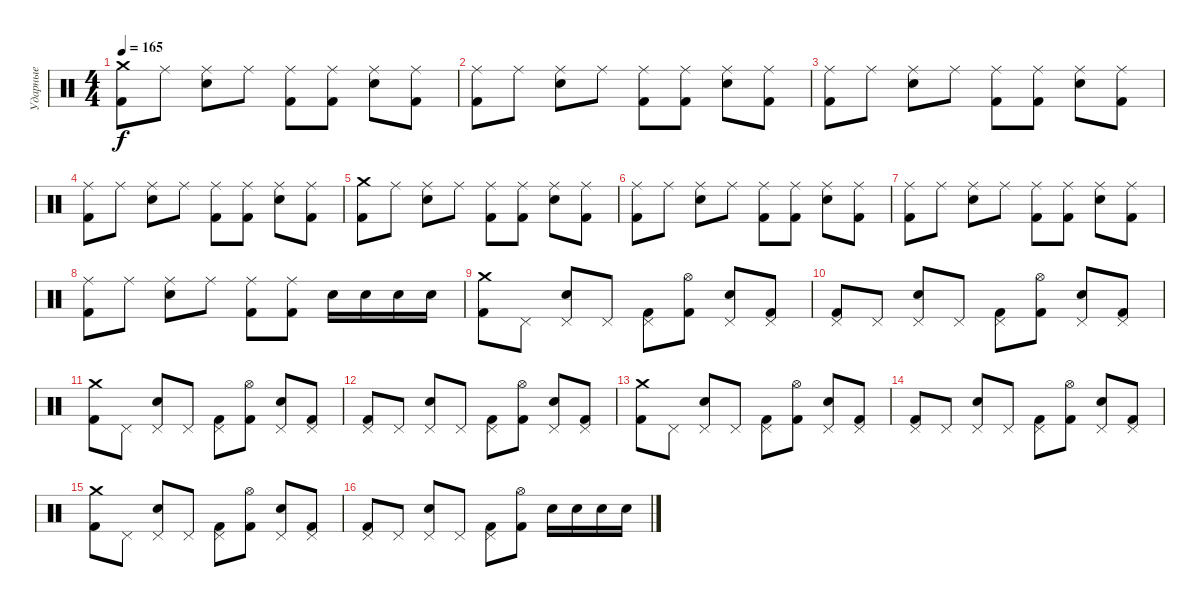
\track ("Ударные" "Ударные") {instrument percussion}
\staff {score}
\articulation defaults
\ts (4 4)
\tempo 165
\clef neutral
\ks c
("Crash medium (hit)" "Kick (hit) 2").8{dy f} "Ride (middle)".8 ("Ride (middle)" "Electric Snare (hit)").8 "Ride (middle)".8 ("Ride (middle)" "Kick (hit) 2").8 ("Ride (middle)" "Kick (hit) 2").8 ("Ride (middle)" "Electric Snare (hit)").8 ("Ride (middle)" "Kick (hit) 2").8 |
("Ride (middle)" "Kick (hit) 2").8 "Ride (middle)".8 ("Ride (middle)" "Electric Snare (hit)").8 "Ride (middle)".8 ("Ride (middle)" "Kick (hit) 2").8 ("Ride (middle)" "Kick (hit) 2").8 ("Ride (middle)" "Electric Snare (hit)").8 ("Ride (middle)" "Kick (hit) 2").8 |
("Ride (middle)" "Kick (hit) 2").8 "Ride (middle)".8 ("Ride (middle)" "Electric Snare (hit)").8 "Ride (middle)".8 ("Ride (middle)" "Kick (hit) 2").8 ("Ride (middle)" "Kick (hit) 2").8 ("Ride (middle)" "Electric Snare (hit)").8 ("Ride (middle)" "Kick (hit) 2").8 |
("Ride (middle)" "Kick (hit) 2").8 "Ride (middle)".8 ("Ride (middle)" "Electric Snare (hit)").8 "Ride (middle)".8 ("Ride (middle)" "Kick (hit) 2").8 ("Ride (middle)" "Kick (hit) 2").8 ("Ride (middle)" "Electric Snare (hit)").8 ("Ride (middle)" "Kick (hit) 2").8 |
("Crash medium (hit)" "Kick (hit) 2").8 "Ride (middle)".8 ("Ride (middle)" "Electric Snare (hit)").8 "Ride (middle)".8 ("Ride (middle)" "Kick (hit) 2").8 ("Ride (middle)" "Kick (hit) 2").8 ("Ride (middle)" "Electric Snare (hit)").8 ("Ride (middle)" "Kick (hit) 2").8 |
("Ride (middle)" "Kick (hit) 2").8 "Ride (middle)".8 ("Ride (middle)" "Electric Snare (hit)").8 "Ride (middle)".8 ("Ride (middle)" "Kick (hit) 2").8 ("Ride (middle)" "Kick (hit) 2").8 ("Ride (middle)" "Electric Snare (hit)").8 ("Ride (middle)" "Kick (hit) 2").8 |
("Ride (middle)" "Kick (hit) 2").8 "Ride (middle)".8 ("Ride (middle)" "Electric Snare (hit)").8 "Ride (middle)".8 ("Ride (middle)" "Kick (hit) 2").8 ("Ride (middle)" "Kick (hit) 2").8 ("Ride (middle)" "Electric Snare (hit)").8 ("Ride (middle)" "Kick (hit) 2").8 |
("Ride (middle)" "Kick (hit) 2").8 "Ride (middle)".8 ("Ride (middle)" "Electric Snare (hit)").8 "Ride (middle)".8 ("Ride (middle)" "Kick (hit) 2").8 ("Ride (middle)" "Kick (hit) 2").8 "Electric Snare (hit)".16 "Electric Snare (hit)".16 "Electric Snare (hit)".16 "Electric Snare (hit)".16 |
("Crash medium (hit)" "Kick (hit) 2").8 "Pedal Hi-Hat (hit)".8 ("Pedal Hi-Hat (hit)" "Electric Snare (hit)").8 "Pedal Hi-Hat (hit)".8 ("Pedal Hi-Hat (hit)" "Kick (hit) 2").8 ("Hi-Hat (open)" "Kick (hit) 2").8 ("Pedal Hi-Hat (hit)" "Electric Snare (hit)").8 ("Pedal Hi-Hat (hit)" "Kick (hit) 2").8 |
("Pedal Hi-Hat (hit)" "Kick (hit) 2").8 "Pedal Hi-Hat (hit)".8 ("Pedal Hi-Hat (hit)" "Electric Snare (hit)").8 "Pedal Hi-Hat (hit)".8 ("Pedal Hi-Hat (hit)" "Kick (hit) 2").8 ("Hi-Hat (open)" "Kick (hit) 2").8 ("Pedal Hi-Hat (hit)" "Electric Snare (hit)").8 ("Pedal Hi-Hat (hit)" "Kick (hit) 2").8 |
("Crash medium (hit)" "Kick (hit) 2").8 "Pedal Hi-Hat (hit)".8 ("Pedal Hi-Hat (hit)" "Electric Snare (hit)").8 "Pedal Hi-Hat (hit)".8 ("Pedal Hi-Hat (hit)" "Kick (hit) 2").8 ("Hi-Hat (open)" "Kick (hit) 2").8 ("Pedal Hi-Hat (hit)" "Electric Snare (hit)").8 ("Pedal Hi-Hat (hit)" "Kick (hit) 2").8 |
("Pedal Hi-Hat (hit)" "Kick (hit) 2").8 "Pedal Hi-Hat (hit)".8 ("Pedal Hi-Hat (hit)" "Electric Snare (hit)").8 "Pedal Hi-Hat (hit)".8 ("Pedal Hi-Hat (hit)" "Kick (hit) 2").8 ("Hi-Hat (open)" "Kick (hit) 2").8 ("Pedal Hi-Hat (hit)" "Electric Snare (hit)").8 ("Pedal Hi-Hat (hit)" "Kick (hit) 2").8 |
("Crash medium (hit)" "Kick (hit) 2").8 "Pedal Hi-Hat (hit)".8 ("Pedal Hi-Hat (hit)" "Electric Snare (hit)").8 "Pedal Hi-Hat (hit)".8 ("Pedal Hi-Hat (hit)" "Kick (hit) 2").8 ("Hi-Hat (open)" "Kick (hit) 2").8 ("Pedal Hi-Hat (hit)" "Electric Snare (hit)").8 ("Pedal Hi-Hat (hit)" "Kick (hit) 2").8 |
("Pedal Hi-Hat (hit)" "Kick (hit) 2").8 "Pedal Hi-Hat (hit)".8 ("Pedal Hi-Hat (hit)" "Electric Snare (hit)").8 "Pedal Hi-Hat (hit)".8 ("Pedal Hi-Hat (hit)" "Kick (hit) 2").8 ("Hi-Hat (open)" "Kick (hit) 2").8 ("Pedal Hi-Hat (hit)" "Electric Snare (hit)").8 ("Pedal Hi-Hat (hit)" "Kick (hit) 2").8 |
("Crash medium (hit)" "Kick (hit) 2").8 "Pedal Hi-Hat (hit)".8 ("Pedal Hi-Hat (hit)" "Electric Snare (hit)").8 "Pedal Hi-Hat (hit)".8 ("Pedal Hi-Hat (hit)" "Kick (hit) 2").8 ("Hi-Hat (open)" "Kick (hit) 2").8 ("Pedal Hi-Hat (hit)" "Electric Snare (hit)").8 ("Pedal Hi-Hat (hit)" "Kick (hit) 2").8 |
("Pedal Hi-Hat (hit)" "Kick (hit) 2").8 "Pedal Hi-Hat (hit)".8 ("Pedal Hi-Hat (hit)" "Electric Snare (hit)").8 "Pedal Hi-Hat (hit)".8 ("Pedal Hi-Hat (hit)" "Kick (hit) 2").8 ("Hi-Hat (open)" "Kick (hit) 2").8 "Electric Snare (hit)".16 "Electric Snare (hit)".16 "Electric Snare (hit)".16 "Electric Snare (hit)".16
